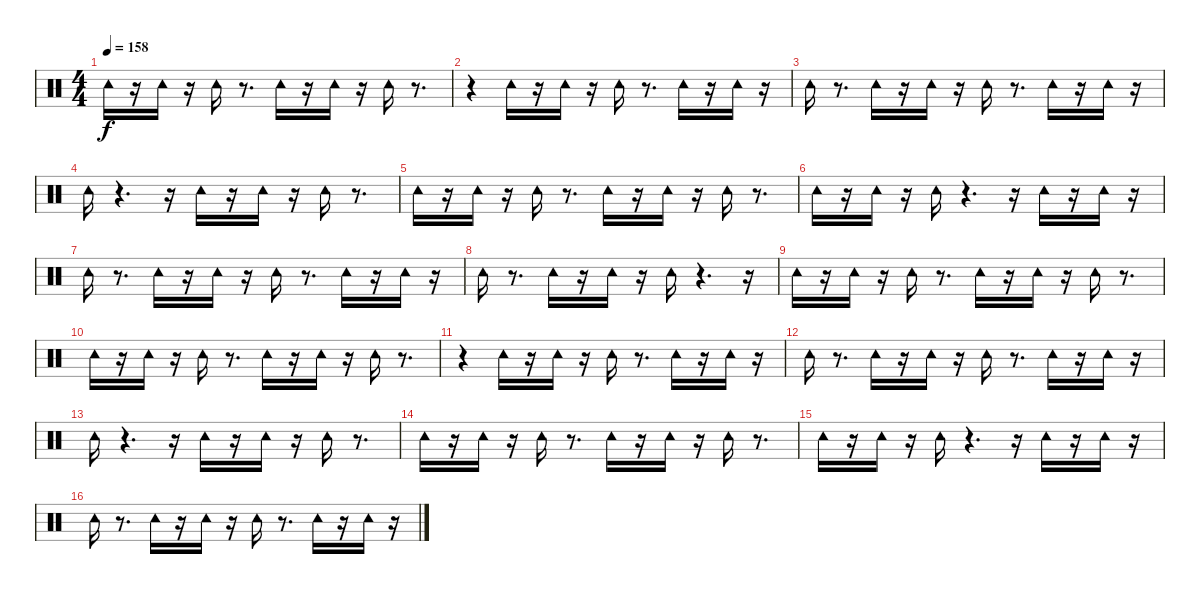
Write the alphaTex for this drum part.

\track "" {instrument percussion}
\staff {score}
\articulation defaults
\ts (4 4)
\tempo 158
\clef neutral
\ks c "Tambourine (hit)".16{dy f}
r.16 "Tambourine (hit)".16 r.16 "Tambourine (hit)".16 r.8{d} "Tambourine (hit)".16 r.16 "Tambourine (hit)".16 r.16 "Tambourine (hit)".16 r.8{d} |
r.4 "Tambourine (hit)".16 r.16 "Tambourine (hit)".16 r.16 "Tambourine (hit)".16 r.8{d} "Tambourine (hit)".16 r.16 "Tambourine (hit)".16 r.16 |
"Tambourine (hit)".16 r.8{d} "Tambourine (hit)".16 r.16 "Tambourine (hit)".16 r.16 "Tambourine (hit)".16 r.8{d} "Tambourine (hit)".16 r.16 "Tambourine (hit)".16 r.16 |
"Tambourine (hit)".16 r.4{d} r.16 "Tambourine (hit)".16 r.16 "Tambourine (hit)".16 r.16 "Tambourine (hit)".16 r.8{d} |
"Tambourine (hit)".16 r.16 "Tambourine (hit)".16 r.16 "Tambourine (hit)".16 r.8{d} "Tambourine (hit)".16 r.16 "Tambourine (hit)".16 r.16 "Tambourine (hit)".16 r.8{d} |
"Tambourine (hit)".16 r.16 "Tambourine (hit)".16 r.16 "Tambourine (hit)".16 r.4{d} r.16 "Tambourine (hit)".16 r.16 "Tambourine (hit)".16 r.16 |
"Tambourine (hit)".16 r.8{d} "Tambourine (hit)".16 r.16 "Tambourine (hit)".16 r.16 "Tambourine (hit)".16 r.8{d} "Tambourine (hit)".16 r.16 "Tambourine (hit)".16 r.16 |
"Tambourine (hit)".16 r.8{d} "Tambourine (hit)".16 r.16 "Tambourine (hit)".16 r.16 "Tambourine (hit)".16 r.4{d} r.16 |
"Tambourine (hit)".16 r.16 "Tambourine (hit)".16 r.16 "Tambourine (hit)".16 r.8{d} "Tambourine (hit)".16 r.16 "Tambourine (hit)".16 r.16 "Tambourine (hit)".16 r.8{d} |
"Tambourine (hit)".16 r.16 "Tambourine (hit)".16 r.16 "Tambourine (hit)".16 r.8{d} "Tambourine (hit)".16 r.16 "Tambourine (hit)".16 r.16 "Tambourine (hit)".16 r.8{d} |
r.4 "Tambourine (hit)".16 r.16 "Tambourine (hit)".16 r.16 "Tambourine (hit)".16 r.8{d} "Tambourine (hit)".16 r.16 "Tambourine (hit)".16 r.16 |
"Tambourine (hit)".16 r.8{d} "Tambourine (hit)".16 r.16 "Tambourine (hit)".16 r.16 "Tambourine (hit)".16 r.8{d} "Tambourine (hit)".16 r.16 "Tambourine (hit)".16 r.16 |
"Tambourine (hit)".16 r.4{d} r.16 "Tambourine (hit)".16 r.16 "Tambourine (hit)".16 r.16 "Tambourine (hit)".16 r.8{d} |
"Tambourine (hit)".16 r.16 "Tambourine (hit)".16 r.16 "Tambourine (hit)".16 r.8{d} "Tambourine (hit)".16 r.16 "Tambourine (hit)".16 r.16 "Tambourine (hit)".16 r.8{d} |
"Tambourine (hit)".16 r.16 "Tambourine (hit)".16 r.16 "Tambourine (hit)".16 r.4{d} r.16 "Tambourine (hit)".16 r.16 "Tambourine (hit)".16 r.16 |
"Tambourine (hit)".16 r.8{d} "Tambourine (hit)".16 r.16 "Tambourine (hit)".16 r.16 "Tambourine (hit)".16 r.8{d} "Tambourine (hit)".16 r.16 "Tambourine (hit)".16 r.16
